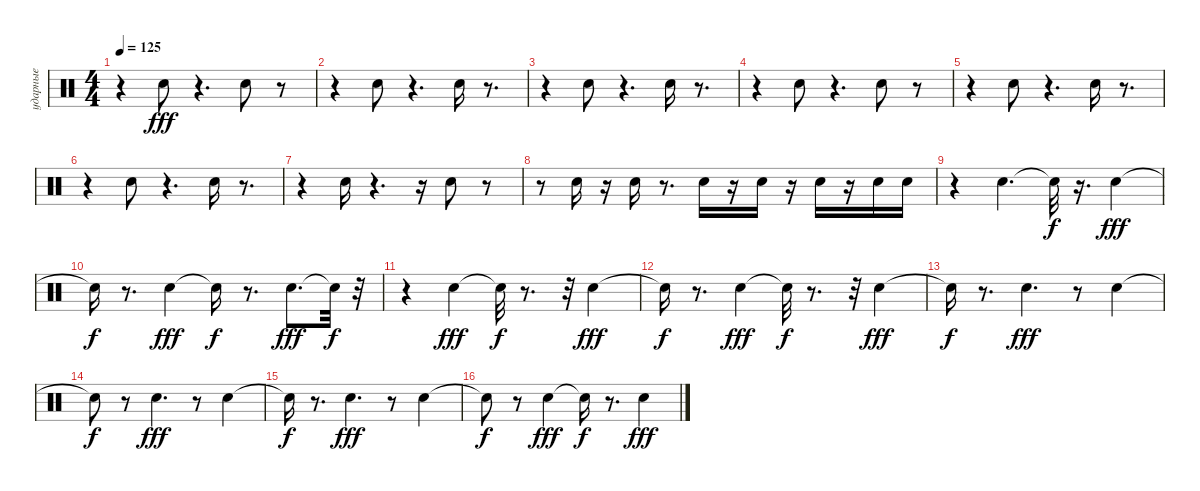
\track ("ударные" "ударные") {instrument percussion}
\staff {score}
\articulation defaults
\ts (4 4)
\tempo 125
\clef neutral
\ks c
r.4{dy fff} "Snare (hit) 2".8 r.4{d} "Snare (hit) 2".8 r.8 |
r.4 "Snare (hit) 2".8 r.4{d} "Snare (hit) 2".16 r.8{d} |
r.4 "Snare (hit) 2".8 r.4{d} "Snare (hit) 2".16 r.8{d} |
r.4 "Snare (hit) 2".8 r.4{d} "Snare (hit) 2".8 r.8 |
r.4 "Snare (hit) 2".8 r.4{d} "Snare (hit) 2".16 r.8{d} |
r.4 "Snare (hit) 2".8 r.4{d} "Snare (hit) 2".16 r.8{d} |
r.4 "Snare (hit) 2".16 r.4{d} r.16 "Snare (hit) 2".8 r.8 |
r.8 "Snare (hit) 2".16 r.16 "Snare (hit) 2".16 r.8{d} "Snare (hit) 2".16 r.16 "Snare (hit) 2".16 r.16 "Snare (hit) 2".16 r.16 "Snare (hit) 2".16 "Snare (hit) 2".16 |
r.4 "Snare (hit) 2".4{d} "Snare (hit)"{t}.32{dy f} r.16{d} "Snare (hit) 2".4{dy fff} |
"Snare (hit)"{t}.16{dy f} r.8{d} "Snare (hit) 2".4{dy fff} "Snare (hit)"{t}.16{dy f} r.8{d} "Snare (hit) 2".8{d dy fff} "Snare (hit)"{t}.32{dy f} r.32 |
r.4 "Snare (hit) 2".4{dy fff} "Snare (hit)"{t}.32{dy f} r.8{d} r.32 "Snare (hit) 2".4{dy fff} |
"Snare (hit)"{t}.16{dy f} r.8{d} "Snare (hit) 2".4{dy fff} "Snare (hit)"{t}.32{dy f} r.8{d} r.32 "Snare (hit) 2".4{dy fff} |
"Snare (hit)"{t}.16{dy f} r.8{d} "Snare (hit) 2".4{d dy fff} r.8 "Snare (hit) 2".4 |
"Snare (hit)"{t}.8{dy f} r.8 "Snare (hit) 2".4{d dy fff} r.8 "Snare (hit) 2".4 |
"Snare (hit)"{t}.16{dy f} r.8{d} "Snare (hit) 2".4{d dy fff} r.8 "Snare (hit) 2".4 |
"Snare (hit)"{t}.8{dy f} r.8 "Snare (hit) 2".4{dy fff} "Snare (hit)"{t}.16{dy f} r.8{d} "Snare (hit) 2".4{dy fff}
